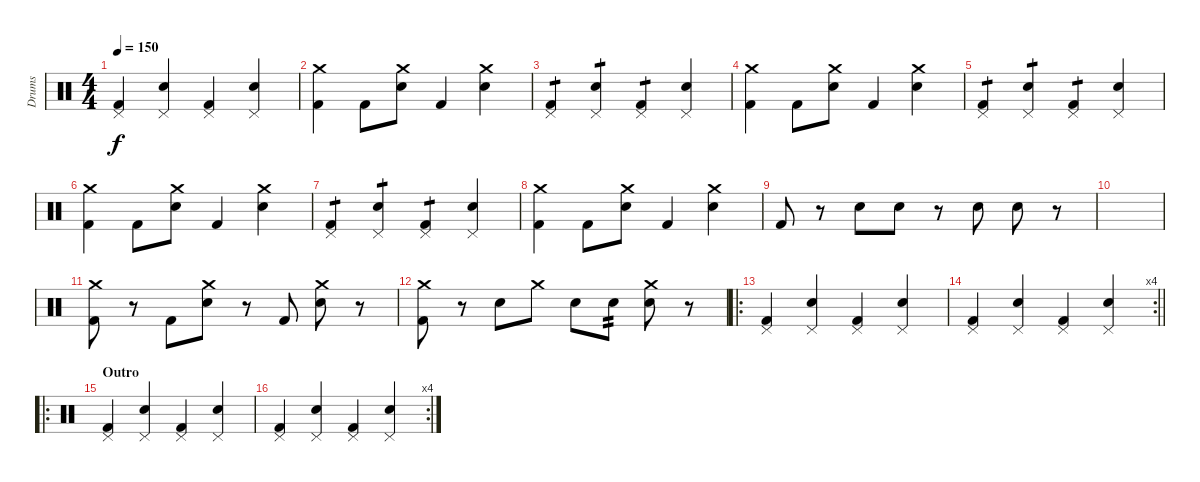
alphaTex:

\track ("Drums" "Drums") {instrument percussion}
\staff {score}
\articulation defaults
\ts (4 4)
\tempo 150
\clef neutral
\ks c
("Kick (hit) 2" "Pedal Hi-Hat (hit)").4{dy f} ("Snare (hit) 2" "Pedal Hi-Hat (hit)").4 ("Kick (hit) 2" "Pedal Hi-Hat (hit)").4 ("Snare (hit) 2" "Pedal Hi-Hat (hit)").4 |
("Kick (hit) 2" "Crash medium (hit)").4 "Kick (hit) 2".8 ("Snare (hit) 2" "Crash medium (hit)").8 "Kick (hit) 2".4 ("Snare (hit) 2" "Crash medium (hit)").4 |
("Kick (hit) 2" "Pedal Hi-Hat (hit)").4{tp 1} ("Snare (hit) 2" "Pedal Hi-Hat (hit)").4{tp 1} ("Kick (hit) 2" "Pedal Hi-Hat (hit)").4{tp 1} ("Snare (hit) 2" "Pedal Hi-Hat (hit)").4 |
("Kick (hit) 2" "Crash medium (hit)").4 "Kick (hit) 2".8 ("Snare (hit) 2" "Crash medium (hit)").8 "Kick (hit) 2".4 ("Snare (hit) 2" "Crash medium (hit)").4 |
("Kick (hit) 2" "Pedal Hi-Hat (hit)").4{tp 1} ("Snare (hit) 2" "Pedal Hi-Hat (hit)").4{tp 1} ("Kick (hit) 2" "Pedal Hi-Hat (hit)").4{tp 1} ("Snare (hit) 2" "Pedal Hi-Hat (hit)").4 |
("Kick (hit) 2" "Crash medium (hit)").4 "Kick (hit) 2".8 ("Snare (hit) 2" "Crash medium (hit)").8 "Kick (hit) 2".4 ("Snare (hit) 2" "Crash medium (hit)").4 |
("Kick (hit) 2" "Pedal Hi-Hat (hit)").4{tp 1} ("Snare (hit) 2" "Pedal Hi-Hat (hit)").4{tp 1} ("Kick (hit) 2" "Pedal Hi-Hat (hit)").4{tp 1} ("Snare (hit) 2" "Pedal Hi-Hat (hit)").4 |
("Kick (hit) 2" "Crash medium (hit)").4 "Kick (hit) 2".8 ("Snare (hit) 2" "Crash medium (hit)").8 "Kick (hit) 2".4 ("Snare (hit) 2" "Crash medium (hit)").4 |
"Kick (hit) 2".8 r.8 "Snare (hit) 2".8 "Snare (hit) 2".8 r.8 "Snare (hit) 2".8 "Snare (hit) 2".8 r.8 |
|
("Kick (hit) 2" "Crash medium (hit)").8 r.8 "Kick (hit) 2".8 ("Snare (hit) 2" "Crash medium (hit)").8 r.8 "Kick (hit) 2".8 ("Snare (hit) 2" "Crash medium (hit)").8 r.8 |
("Kick (hit) 2" "Crash medium (hit)").8 r.8 "Snare (hit) 2".8 "Crash medium (hit)".8 "Snare (hit) 2".8 "Snare (hit) 2".8{tp 2} ("Snare (hit) 2" "Crash medium (hit)").8 r.8 |
\ro
("Kick (hit) 2" "Pedal Hi-Hat (hit)").4 ("Snare (hit) 2" "Pedal Hi-Hat (hit)").4 ("Kick (hit) 2" "Pedal Hi-Hat (hit)").4 ("Snare (hit) 2" "Pedal Hi-Hat (hit)").4 |
\rc 4
\barLineRight lightlight
("Kick (hit) 2" "Pedal Hi-Hat (hit)").4 ("Snare (hit) 2" "Pedal Hi-Hat (hit)").4 ("Kick (hit) 2" "Pedal Hi-Hat (hit)").4 ("Snare (hit) 2" "Pedal Hi-Hat (hit)").4 |
\ro
\section ("" "Outro")
("Kick (hit) 2" "Pedal Hi-Hat (hit)").4 ("Snare (hit) 2" "Pedal Hi-Hat (hit)").4 ("Kick (hit) 2" "Pedal Hi-Hat (hit)").4 ("Snare (hit) 2" "Pedal Hi-Hat (hit)").4 |
\rc 4
("Kick (hit) 2" "Pedal Hi-Hat (hit)").4 ("Snare (hit) 2" "Pedal Hi-Hat (hit)").4 ("Kick (hit) 2" "Pedal Hi-Hat (hit)").4 ("Snare (hit) 2" "Pedal Hi-Hat (hit)").4
